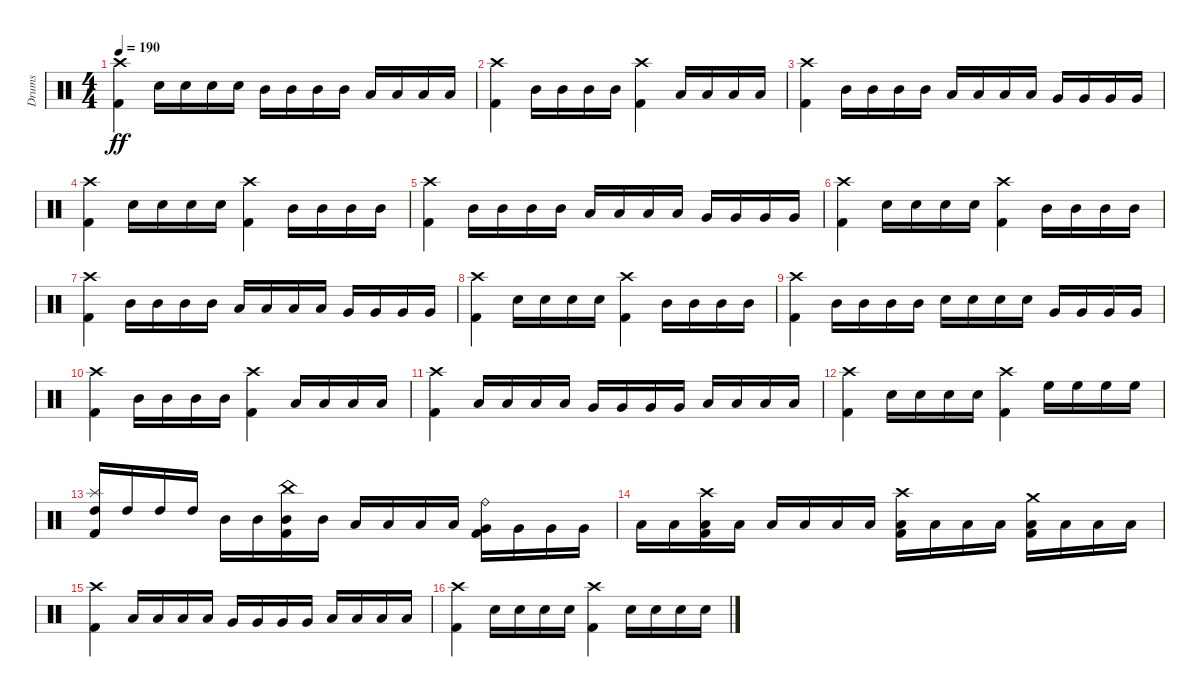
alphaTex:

\track ("Drums" "Drums") {instrument percussion}
\staff {score}
\articulation defaults
\ts (4 4)
\tempo 190
\clef neutral
\ks c
("Crash high (hit)" "Kick (hit) 2").4{dy ff} "Electric Snare (hit)".16 "Electric Snare (hit)".16 "Electric Snare (hit)".16 "Electric Snare (hit)".16 "Mid Tom (hit)".16 "Mid Tom (hit)".16 "Mid Tom (hit)".16 "Mid Tom (hit)".16 "Low Tom (hit)".16 "Low Tom (hit)".16 "Low Tom (hit)".16 "Low Tom (hit)".16 |
("Crash high (hit)" "Kick (hit) 2").4 "Mid Tom (hit)".16 "Mid Tom (hit)".16 "Mid Tom (hit)".16 "Mid Tom (hit)".16 ("Crash high (hit)" "Kick (hit) 2").4 "Low Tom (hit)".16 "Low Tom (hit)".16 "Low Tom (hit)".16 "Low Tom (hit)".16 |
("Crash high (hit)" "Kick (hit) 2").4 "Mid Tom (hit)".16 "Mid Tom (hit)".16 "Mid Tom (hit)".16 "Mid Tom (hit)".16 "Low Tom (hit)".16 "Low Tom (hit)".16 "Low Tom (hit)".16 "Low Tom (hit)".16 "Very Low Tom (hit)".16 "Very Low Tom (hit)".16 "Very Low Tom (hit)".16 "Very Low Tom (hit)".16 |
("Crash high (hit)" "Kick (hit) 2").4 "Electric Snare (hit)".16 "Electric Snare (hit)".16 "Electric Snare (hit)".16 "Electric Snare (hit)".16 ("Crash high (hit)" "Kick (hit) 2").4 "Mid Tom (hit)".16 "Mid Tom (hit)".16 "Mid Tom (hit)".16 "Mid Tom (hit)".16 |
("Crash high (hit)" "Kick (hit) 2").4 "Mid Tom (hit)".16 "Mid Tom (hit)".16 "Mid Tom (hit)".16 "Mid Tom (hit)".16 "Low Tom (hit)".16 "Low Tom (hit)".16 "Low Tom (hit)".16 "Low Tom (hit)".16 "Very Low Tom (hit)".16 "Very Low Tom (hit)".16 "Very Low Tom (hit)".16 "Very Low Tom (hit)".16 |
("Crash high (hit)" "Kick (hit) 2").4 "Electric Snare (hit)".16 "Electric Snare (hit)".16 "Electric Snare (hit)".16 "Electric Snare (hit)".16 ("Crash high (hit)" "Kick (hit) 2").4 "Mid Tom (hit)".16 "Mid Tom (hit)".16 "Mid Tom (hit)".16 "Mid Tom (hit)".16 |
("Crash high (hit)" "Kick (hit) 2").4 "Mid Tom (hit)".16 "Mid Tom (hit)".16 "Mid Tom (hit)".16 "Mid Tom (hit)".16 "Low Tom (hit)".16 "Low Tom (hit)".16 "Low Tom (hit)".16 "Low Tom (hit)".16 "Very Low Tom (hit)".16 "Very Low Tom (hit)".16 "Very Low Tom (hit)".16 "Very Low Tom (hit)".16 |
("Crash high (hit)" "Kick (hit) 2").4 "Electric Snare (hit)".16 "Electric Snare (hit)".16 "Electric Snare (hit)".16 "Electric Snare (hit)".16 ("Crash high (hit)" "Kick (hit) 2").4 "Mid Tom (hit)".16 "Mid Tom (hit)".16 "Mid Tom (hit)".16 "Mid Tom (hit)".16 |
("Crash high (hit)" "Kick (hit) 2").4 "Mid Tom (hit)".16 "Mid Tom (hit)".16 "Mid Tom (hit)".16 "Mid Tom (hit)".16 "Electric Snare (hit)".16 "Electric Snare (hit)".16 "Electric Snare (hit)".16 "Electric Snare (hit)".16 "Very Low Tom (hit)".16 "Very Low Tom (hit)".16 "Very Low Tom (hit)".16 "Very Low Tom (hit)".16 |
("Crash high (hit)" "Kick (hit) 2").4 "Mid Tom (hit)".16 "Mid Tom (hit)".16 "Mid Tom (hit)".16 "Mid Tom (hit)".16 ("Crash high (hit)" "Kick (hit) 2").4 "Low Tom (hit)".16 "Low Tom (hit)".16 "Low Tom (hit)".16 "Low Tom (hit)".16 |
("Crash high (hit)" "Kick (hit) 2").4 "Low Tom (hit)".16 "Low Tom (hit)".16 "Low Tom (hit)".16 "Low Tom (hit)".16 "Very Low Tom (hit)".16 "Very Low Tom (hit)".16 "Very Low Tom (hit)".16 "Very Low Tom (hit)".16 "Low Floor Tom (hit)".16 "Low Floor Tom (hit)".16 "Low Floor Tom (hit)".16 "Low Floor Tom (hit)".16 |
("Crash high (hit)" "Kick (hit) 2").4 "Electric Snare (hit)".16 "Electric Snare (hit)".16 "Electric Snare (hit)".16 "Electric Snare (hit)".16 ("Crash high (hit)" "Kick (hit) 2").4 "High Floor Tom (hit)".16 "High Floor Tom (hit)".16 "High Floor Tom (hit)".16 "High Floor Tom (hit)".16 |
("Splash (hit)" "High Tom (hit)" "Kick (hit) 2").16 "High Tom (hit)".16 "High Tom (hit)".16 "High Tom (hit)".16 "Mid Tom (hit)".16 "Mid Tom (hit)".16 ("China (hit)" "Mid Tom (hit)" "Kick (hit) 2").16 "Mid Tom (hit)".16 "Low Tom (hit)".16 "Low Tom (hit)".16 "Low Tom (hit)".16 "Low Tom (hit)".16 ("Ride (bell)" "Very Low Tom (hit)" "Kick (hit) 2").16 "Very Low Tom (hit)".16 "Very Low Tom (hit)".16 "Very Low Tom (hit)".16 |
"Low Floor Tom (hit)".16 "Low Floor Tom (hit)".16 ("Crash high (hit)" "Low Floor Tom (hit)" "Kick (hit) 2").16 "Low Floor Tom (hit)".16 "Low Floor Tom (hit)".16 "Low Floor Tom (hit)".16 "Low Floor Tom (hit)".16 "Low Floor Tom (hit)".16 ("Crash high (hit)" "Low Floor Tom (hit)" "Kick (hit) 2").16 "Low Floor Tom (hit)".16 "Low Floor Tom (hit)".16 "Low Floor Tom (hit)".16 ("Crash medium (hit)" "Low Floor Tom (hit)" "Kick (hit) 2").16 "Low Floor Tom (hit)".16 "Low Floor Tom (hit)".16 "Low Floor Tom (hit)".16 |
("Crash high (hit)" "Kick (hit) 2").4 "Low Tom (hit)".16 "Low Tom (hit)".16 "Low Tom (hit)".16 "Low Tom (hit)".16 "Very Low Tom (hit)".16 "Very Low Tom (hit)".16 "Very Low Tom (hit)".16 "Very Low Tom (hit)".16 "Low Floor Tom (hit)".16 "Low Floor Tom (hit)".16 "Low Floor Tom (hit)".16 "Low Floor Tom (hit)".16 |
("Crash high (hit)" "Kick (hit) 2").4 "Electric Snare (hit)".16 "Electric Snare (hit)".16 "Electric Snare (hit)".16 "Electric Snare (hit)".16 ("Crash high (hit)" "Kick (hit) 2").4 "Electric Snare (hit)".16 "Electric Snare (hit)".16 "Electric Snare (hit)".16 "Electric Snare (hit)".16
